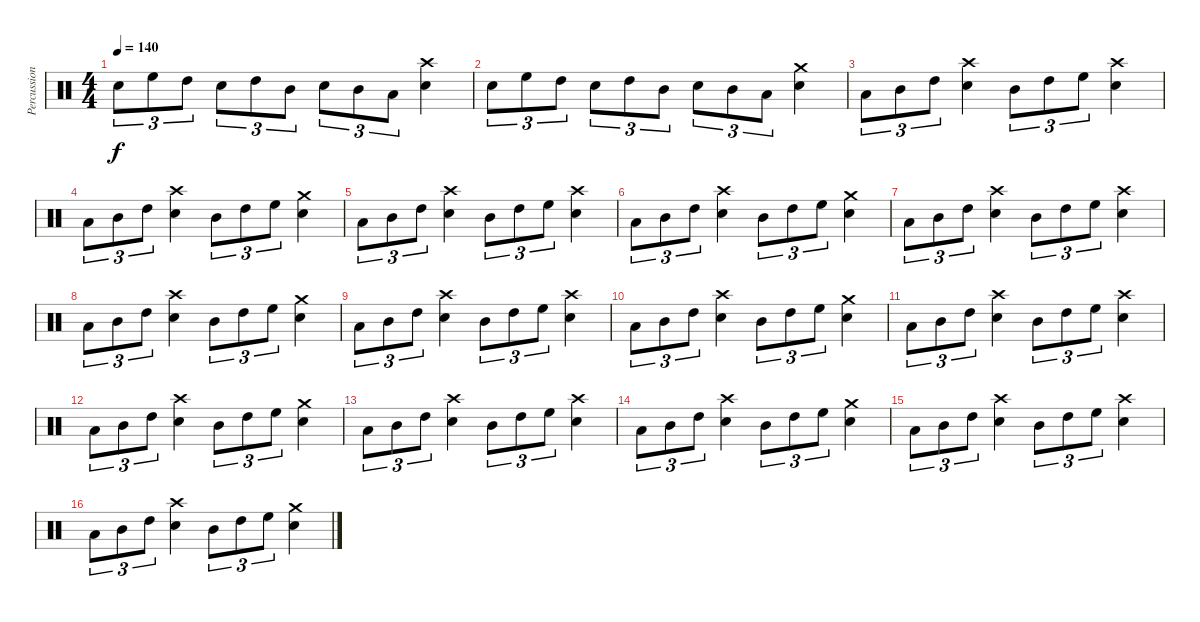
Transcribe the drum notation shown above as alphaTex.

\track ("Percussion" "Percussion") {instrument percussion}
\staff {score}
\articulation defaults
\ts (4 4)
\tempo 140
\clef neutral
\ks c "Electric Snare (hit)".8{tu (3 2) dy f} "High Floor Tom (hit)".8{tu (3 2)} "High Tom (hit)".8{tu (3 2)} "Snare (hit) 2".8{tu (3 2)} "High Tom (hit)".8{tu (3 2)} "Mid Tom (hit)".8{tu (3 2)} "Electric Snare (hit)".8{tu (3 2)} "Mid Tom (hit)".8{tu (3 2)} "Low Tom (hit)".8{tu (3 2)}
("Electric Snare (hit)" "Crash high (hit)").4 |
"Electric Snare (hit)".8{tu (3 2)} "High Floor Tom (hit)".8{tu (3 2)} "High Tom (hit)".8{tu (3 2)} "Snare (hit) 2".8{tu (3 2)} "High Tom (hit)".8{tu (3 2)} "Mid Tom (hit)".8{tu (3 2)} "Electric Snare (hit)".8{tu (3 2)} "Mid Tom (hit)".8{tu (3 2)} "Low Tom (hit)".8{tu (3 2)} ("Electric Snare (hit)" "Crash medium (hit)").4 |
"Low Tom (hit)".8{tu (3 2)} "Mid Tom (hit)".8{tu (3 2)} "High Tom (hit)".8{tu (3 2)} ("Electric Snare (hit)" "Crash high (hit)").4 "Mid Tom (hit)".8{tu (3 2)} "High Tom (hit)".8{tu (3 2)} "High Floor Tom (hit)".8{tu (3 2)} ("Electric Snare (hit)" "Crash high (hit)").4 |
"Low Tom (hit)".8{tu (3 2)} "Mid Tom (hit)".8{tu (3 2)} "High Tom (hit)".8{tu (3 2)} ("Electric Snare (hit)" "Crash high (hit)").4 "Mid Tom (hit)".8{tu (3 2)} "High Tom (hit)".8{tu (3 2)} "High Floor Tom (hit)".8{tu (3 2)} ("Electric Snare (hit)" "Crash medium (hit)").4 |
"Low Tom (hit)".8{tu (3 2)} "Mid Tom (hit)".8{tu (3 2)} "High Tom (hit)".8{tu (3 2)} ("Electric Snare (hit)" "Crash high (hit)").4 "Mid Tom (hit)".8{tu (3 2)} "High Tom (hit)".8{tu (3 2)} "High Floor Tom (hit)".8{tu (3 2)} ("Electric Snare (hit)" "Crash high (hit)").4 |
"Low Tom (hit)".8{tu (3 2)} "Mid Tom (hit)".8{tu (3 2)} "High Tom (hit)".8{tu (3 2)} ("Electric Snare (hit)" "Crash high (hit)").4 "Mid Tom (hit)".8{tu (3 2)} "High Tom (hit)".8{tu (3 2)} "High Floor Tom (hit)".8{tu (3 2)} ("Electric Snare (hit)" "Crash medium (hit)").4 |
"Low Tom (hit)".8{tu (3 2)} "Mid Tom (hit)".8{tu (3 2)} "High Tom (hit)".8{tu (3 2)} ("Electric Snare (hit)" "Crash high (hit)").4 "Mid Tom (hit)".8{tu (3 2)} "High Tom (hit)".8{tu (3 2)} "High Floor Tom (hit)".8{tu (3 2)} ("Electric Snare (hit)" "Crash high (hit)").4 |
"Low Tom (hit)".8{tu (3 2)} "Mid Tom (hit)".8{tu (3 2)} "High Tom (hit)".8{tu (3 2)} ("Electric Snare (hit)" "Crash high (hit)").4 "Mid Tom (hit)".8{tu (3 2)} "High Tom (hit)".8{tu (3 2)} "High Floor Tom (hit)".8{tu (3 2)} ("Electric Snare (hit)" "Crash medium (hit)").4 |
"Low Tom (hit)".8{tu (3 2)} "Mid Tom (hit)".8{tu (3 2)} "High Tom (hit)".8{tu (3 2)} ("Electric Snare (hit)" "Crash high (hit)").4 "Mid Tom (hit)".8{tu (3 2)} "High Tom (hit)".8{tu (3 2)} "High Floor Tom (hit)".8{tu (3 2)} ("Electric Snare (hit)" "Crash high (hit)").4 |
"Low Tom (hit)".8{tu (3 2)} "Mid Tom (hit)".8{tu (3 2)} "High Tom (hit)".8{tu (3 2)} ("Electric Snare (hit)" "Crash high (hit)").4 "Mid Tom (hit)".8{tu (3 2)} "High Tom (hit)".8{tu (3 2)} "High Floor Tom (hit)".8{tu (3 2)} ("Electric Snare (hit)" "Crash medium (hit)").4 |
"Low Tom (hit)".8{tu (3 2)} "Mid Tom (hit)".8{tu (3 2)} "High Tom (hit)".8{tu (3 2)} ("Electric Snare (hit)" "Crash high (hit)").4 "Mid Tom (hit)".8{tu (3 2)} "High Tom (hit)".8{tu (3 2)} "High Floor Tom (hit)".8{tu (3 2)} ("Electric Snare (hit)" "Crash high (hit)").4 |
"Low Tom (hit)".8{tu (3 2)} "Mid Tom (hit)".8{tu (3 2)} "High Tom (hit)".8{tu (3 2)} ("Electric Snare (hit)" "Crash high (hit)").4 "Mid Tom (hit)".8{tu (3 2)} "High Tom (hit)".8{tu (3 2)} "High Floor Tom (hit)".8{tu (3 2)} ("Electric Snare (hit)" "Crash medium (hit)").4 |
"Low Tom (hit)".8{tu (3 2)} "Mid Tom (hit)".8{tu (3 2)} "High Tom (hit)".8{tu (3 2)} ("Electric Snare (hit)" "Crash high (hit)").4 "Mid Tom (hit)".8{tu (3 2)} "High Tom (hit)".8{tu (3 2)} "High Floor Tom (hit)".8{tu (3 2)} ("Electric Snare (hit)" "Crash high (hit)").4 |
"Low Tom (hit)".8{tu (3 2)} "Mid Tom (hit)".8{tu (3 2)} "High Tom (hit)".8{tu (3 2)} ("Electric Snare (hit)" "Crash high (hit)").4 "Mid Tom (hit)".8{tu (3 2)} "High Tom (hit)".8{tu (3 2)} "High Floor Tom (hit)".8{tu (3 2)} ("Electric Snare (hit)" "Crash medium (hit)").4 |
"Low Tom (hit)".8{tu (3 2)} "Mid Tom (hit)".8{tu (3 2)} "High Tom (hit)".8{tu (3 2)} ("Electric Snare (hit)" "Crash high (hit)").4 "Mid Tom (hit)".8{tu (3 2)} "High Tom (hit)".8{tu (3 2)} "High Floor Tom (hit)".8{tu (3 2)} ("Electric Snare (hit)" "Crash high (hit)").4 |
"Low Tom (hit)".8{tu (3 2)} "Mid Tom (hit)".8{tu (3 2)} "High Tom (hit)".8{tu (3 2)} ("Electric Snare (hit)" "Crash high (hit)").4 "Mid Tom (hit)".8{tu (3 2)} "High Tom (hit)".8{tu (3 2)} "High Floor Tom (hit)".8{tu (3 2)} ("Electric Snare (hit)" "Crash medium (hit)").4
